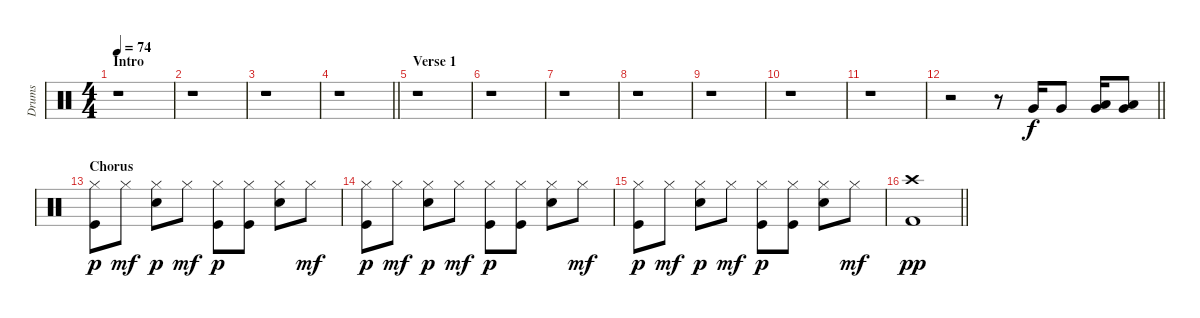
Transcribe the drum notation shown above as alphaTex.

\track ("Drums" "Drums") {instrument percussion}
\staff {score}
\articulation defaults
\ts (4 4)
\section ("" "Intro")
\tempo 74
\clef neutral
\ks c
r.1{dy f} |
r.1 |
r.1 |
\barLineRight lightlight
r.1 |
\section ("" "Verse 1")
r.1 |
r.1 |
r.1 |
r.1 |
r.1 |
r.1 |
r.1 |
\barLineRight lightlight
r.2 r.8 "Very Low Tom (hit)".16 "Very Low Tom (hit)".8 ("Very Low Tom (hit)" "Low Floor Tom (hit)").16 ("Very Low Tom (hit)" "Low Floor Tom (hit)").8 |
\section ("" "Chorus")
("Hi-Hat (closed)" "Kick (hit)").8{dy p} "Hi-Hat (closed)".8{dy mf} ("Hi-Hat (closed)" "Electric Snare (hit)").8{dy p} "Hi-Hat (closed)".8{dy mf} ("Hi-Hat (closed)" "Kick (hit)").8{dy p} ("Hi-Hat (closed)" "Kick (hit)").8 ("Hi-Hat (closed)" "Electric Snare (hit)").8 "Hi-Hat (closed)".8{dy mf} |
("Hi-Hat (closed)" "Kick (hit)").8{dy p} "Hi-Hat (closed)".8{dy mf} ("Hi-Hat (closed)" "Electric Snare (hit)").8{dy p} "Hi-Hat (closed)".8{dy mf} ("Hi-Hat (closed)" "Kick (hit)").8{dy p} ("Hi-Hat (closed)" "Kick (hit)").8 ("Hi-Hat (closed)" "Electric Snare (hit)").8 "Hi-Hat (closed)".8{dy mf} |
("Hi-Hat (closed)" "Kick (hit)").8{dy p} "Hi-Hat (closed)".8{dy mf} ("Hi-Hat (closed)" "Electric Snare (hit)").8{dy p} "Hi-Hat (closed)".8{dy mf} ("Hi-Hat (closed)" "Kick (hit)").8{dy p} ("Hi-Hat (closed)" "Kick (hit)").8 ("Hi-Hat (closed)" "Electric Snare (hit)").8 "Hi-Hat (closed)".8{dy mf} |
\barLineRight lightlight
("Crash high (hit)" "Kick (hit) 2").1{dy pp}
